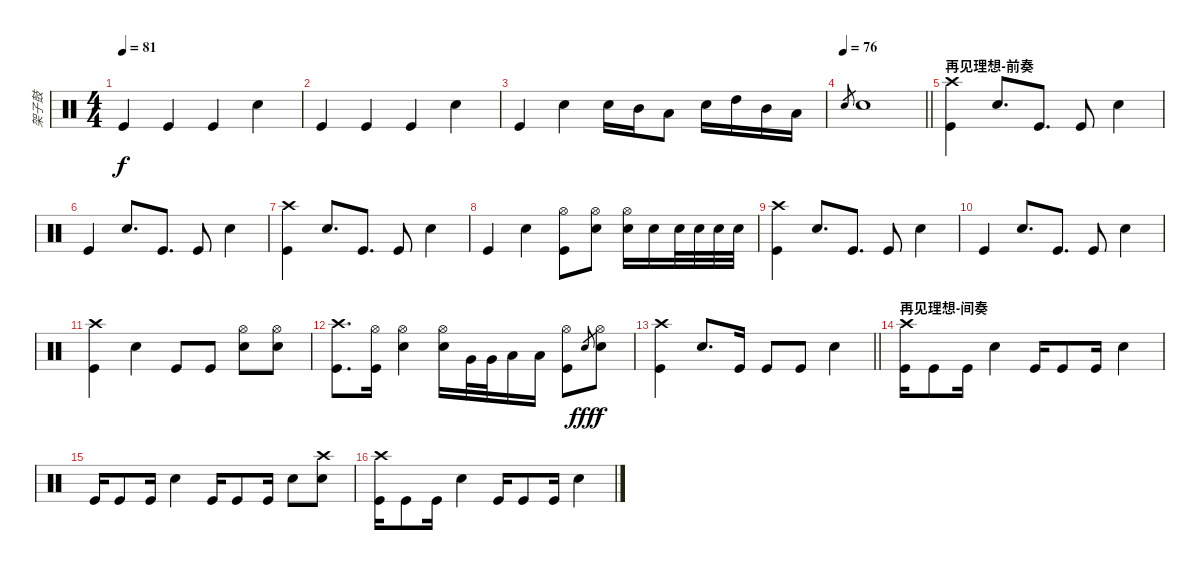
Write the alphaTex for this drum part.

\track ("架子鼓" "架子鼓") {instrument percussion}
\staff {score}
\articulation defaults
\ts (4 4)
\tempo 81
\clef neutral
\ks c "Kick (hit)".4{dy f} "Kick (hit)".4 "Kick (hit)".4 "Electric Snare (hit)".4
|
"Kick (hit)".4 "Kick (hit)".4 "Kick (hit)".4 "Electric Snare (hit)".4 |
"Kick (hit)".4 "Electric Snare (hit)".4 "Electric Snare (hit)".16 "Mid Tom (hit)".16 "Low Tom (hit)".8 "Electric Snare (hit)".16 "High Tom (hit)".16 "Mid Tom (hit)".16 "Low Tom (hit)".16 |
\tempo 76
\barLineRight lightlight "Electric Snare (hit)".8{gr} "Electric Snare (hit)".1
|
\section ("" "再见理想-前奏")
("Crash high (hit)" "Kick (hit)").4 "Electric Snare (hit)".8{d} "Kick (hit)".8{d} "Kick (hit)".8 "Electric Snare (hit)".4 |
"Kick (hit)".4 "Electric Snare (hit)".8{d} "Kick (hit)".8{d} "Kick (hit)".8 "Electric Snare (hit)".4 |
("Crash high (hit)" "Kick (hit)").4 "Electric Snare (hit)".8{d} "Kick (hit)".8{d} "Kick (hit)".8 "Electric Snare (hit)".4 |
"Kick (hit)".4 "Electric Snare (hit)".4 ("Hi-Hat (open)" "Kick (hit)").8 ("Hi-Hat (open)" "Electric Snare (hit)").8 ("Hi-Hat (open)" "Electric Snare (hit)").16 "Electric Snare (hit)".16 "Electric Snare (hit)".32 "Electric Snare (hit)".32 "Electric Snare (hit)".32 "Electric Snare (hit)".32 |
("Crash high (hit)" "Kick (hit)").4 "Electric Snare (hit)".8{d} "Kick (hit)".8{d} "Kick (hit)".8 "Electric Snare (hit)".4 |
"Kick (hit)".4 "Electric Snare (hit)".8{d} "Kick (hit)".8{d} "Kick (hit)".8 "Electric Snare (hit)".4 |
("Crash high (hit)" "Kick (hit)").4 "Electric Snare (hit)".4 "Kick (hit)".8 "Kick (hit)".8 ("Hi-Hat (open)" "Electric Snare (hit)").8 ("Hi-Hat (open)" "Electric Snare (hit)").8 |
("Crash high (hit)" "Kick (hit)").8{d} ("Hi-Hat (open)" "Kick (hit)").16 ("Hi-Hat (open)" "Electric Snare (hit)").4 ("Hi-Hat (open)" "Electric Snare (hit)").16 "Very Low Tom (hit)".32 "Very Low Tom (hit)".32 "Low Floor Tom (hit)".16 "Low Floor Tom (hit)".16 ("Hi-Hat (open)" "Kick (hit)").8 "Electric Snare (hit)"{sl}.8{gr dy fff} ("Hi-Hat (open)" "Electric Snare (hit)").8{dy f} |
\barLineRight lightlight
("Crash high (hit)" "Kick (hit)").4 "Electric Snare (hit)".8{d} "Kick (hit)".16 "Kick (hit)".8 "Kick (hit)".8 "Electric Snare (hit)".4 |
\section ("" "再见理想-间奏")
("Crash high (hit)" "Kick (hit)").16 "Kick (hit)".8 "Kick (hit)".16 "Electric Snare (hit)".4 "Kick (hit)".16 "Kick (hit)".8 "Kick (hit)".16 "Electric Snare (hit)".4 |
"Kick (hit)".16 "Kick (hit)".8 "Kick (hit)".16 "Electric Snare (hit)".4 "Kick (hit)".16 "Kick (hit)".8 "Kick (hit)".16 "Electric Snare (hit)".8 ("Crash high (hit)" "Electric Snare (hit)").8 |
("Crash high (hit)" "Kick (hit)").16 "Kick (hit)".8 "Kick (hit)".16 "Electric Snare (hit)".4 "Kick (hit)".16 "Kick (hit)".8 "Kick (hit)".16 "Electric Snare (hit)".4
